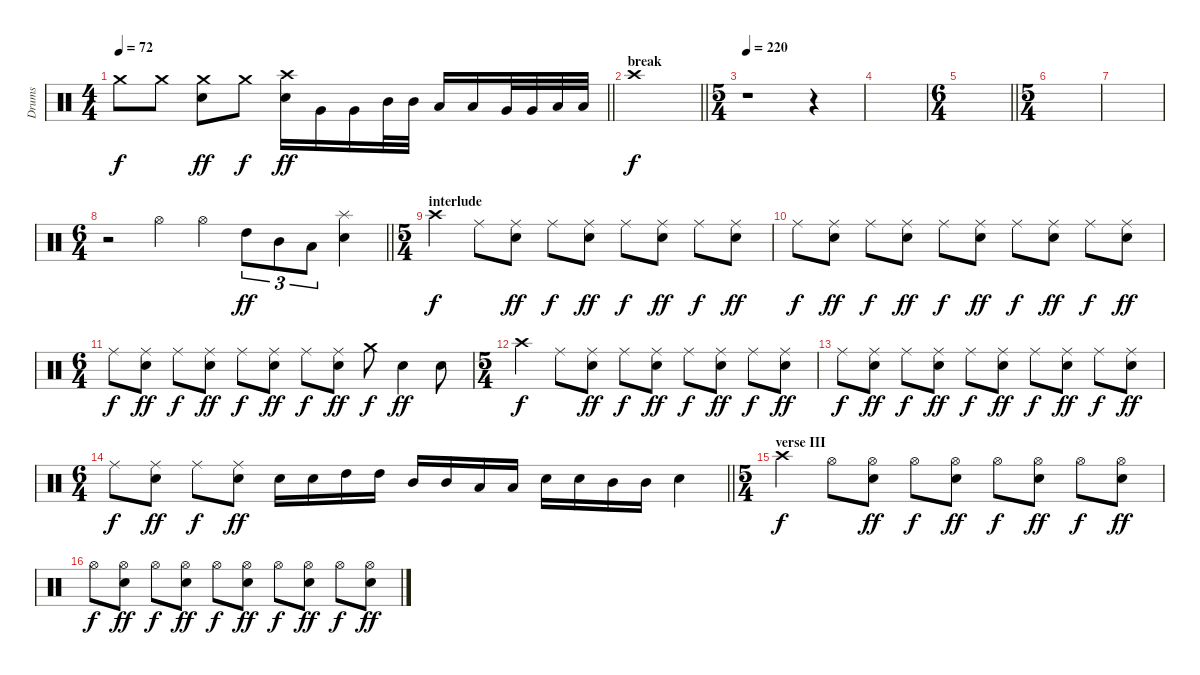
\track ("Drums" "Drums") {instrument percussion}
\staff {score}
\articulation defaults
\ts (4 4)
\tempo 72
\clef neutral
\barLineRight lightlight
\ks c "Crash medium (hit)".8{dy f} "Crash medium (hit)".8
("Crash medium (hit)" "Snare (hit) 2").8{dy ff} "Crash medium (hit)".8{dy f} ("Crash high (hit)" "Snare (hit) 2").16{dy ff} "Very Low Tom (hit)".16 "Very Low Tom (hit)".16 "Mid Tom (hit)".32 "Mid Tom (hit)".32 "Low Tom (hit)".16 "Low Tom (hit)".16 "Very Low Tom (hit)".32 "Very Low Tom (hit)".32 "Low Floor Tom (hit)".32 "Low Floor Tom (hit)".32 |
\section ("" "break")
\barLineRight lightlight "Crash high (hit)".1{dy f}
|
\ts (5 4)
\section ("" "")
\tempo 220
r.1 r.4 |
|
\ts (6 4)
\barLineRight lightlight
|
\ts (5 4)
|
|
\ts (6 4)
\barLineRight lightlight
r.2 "Hi-Hat (open)".4 "Hi-Hat (open)".4 "High Tom (hit)".8{tu (3 2) dy ff} "Mid Tom (hit)".8{tu (3 2)} "Low Tom (hit)".8{tu (3 2)} ("Splash (hit)" "Snare (hit) 2").4 |
\ts (5 4)
\section ("" "interlude")
"Crash high (hit)".4{dy f} "Ride (middle)".8 ("Ride (middle)" "Snare (hit) 2").8{dy ff} "Ride (middle)".8{dy f} ("Ride (middle)" "Snare (hit) 2").8{dy ff} "Ride (middle)".8{dy f} ("Ride (middle)" "Snare (hit) 2").8{dy ff} "Ride (middle)".8{dy f} ("Ride (middle)" "Snare (hit) 2").8{dy ff} |
"Ride (middle)".8{dy f} ("Ride (middle)" "Snare (hit) 2").8{dy ff} "Ride (middle)".8{dy f} ("Ride (middle)" "Snare (hit) 2").8{dy ff} "Ride (middle)".8{dy f} ("Ride (middle)" "Snare (hit) 2").8{dy ff} "Ride (middle)".8{dy f} ("Ride (middle)" "Snare (hit) 2").8{dy ff} "Ride (middle)".8{dy f} ("Ride (middle)" "Snare (hit) 2").8{dy ff} |
\ts (6 4)
"Ride (middle)".8{dy f} ("Ride (middle)" "Snare (hit) 2").8{dy ff} "Ride (middle)".8{dy f} ("Ride (middle)" "Snare (hit) 2").8{dy ff} "Ride (middle)".8{dy f} ("Ride (middle)" "Snare (hit) 2").8{dy ff} "Ride (middle)".8{dy f} ("Ride (middle)" "Snare (hit) 2").8{dy ff} "Crash medium (hit)".8{dy f} "Snare (hit) 2".4{dy ff} "Snare (hit) 2".8 |
\ts (5 4)
"Crash high (hit)".4{dy f} "Ride (middle)".8 ("Ride (middle)" "Snare (hit) 2").8{dy ff} "Ride (middle)".8{dy f} ("Ride (middle)" "Snare (hit) 2").8{dy ff} "Ride (middle)".8{dy f} ("Ride (middle)" "Snare (hit) 2").8{dy ff} "Ride (middle)".8{dy f} ("Ride (middle)" "Snare (hit) 2").8{dy ff} |
"Ride (middle)".8{dy f} ("Ride (middle)" "Snare (hit) 2").8{dy ff} "Ride (middle)".8{dy f} ("Ride (middle)" "Snare (hit) 2").8{dy ff} "Ride (middle)".8{dy f} ("Ride (middle)" "Snare (hit) 2").8{dy ff} "Ride (middle)".8{dy f} ("Ride (middle)" "Snare (hit) 2").8{dy ff} "Ride (middle)".8{dy f} ("Ride (middle)" "Snare (hit) 2").8{dy ff} |
\ts (6 4)
\barLineRight lightlight "Ride (middle)".8{dy f}
("Ride (middle)" "Snare (hit) 2").8{dy ff} "Ride (middle)".8{dy f} ("Ride (middle)" "Snare (hit) 2").8{dy ff} "Snare (hit) 2".16 "Snare (hit) 2".16 "High Tom (hit)".16 "High Tom (hit)".16 "Mid Tom (hit)".16 "Mid Tom (hit)".16 "Low Tom (hit)".16 "Low Tom (hit)".16 "Snare (hit) 2".16 "Snare (hit) 2".16 "Mid Tom (hit)".16 "Mid Tom (hit)".16 "Snare (hit) 2".4 |
\ts (5 4)
\section ("" "verse III")
"Crash high (hit)".4{dy f} "Hi-Hat (open)".8 ("Hi-Hat (open)" "Snare (hit) 2").8{dy ff} "Hi-Hat (open)".8{dy f} ("Hi-Hat (open)" "Snare (hit) 2").8{dy ff} "Hi-Hat (open)".8{dy f} ("Hi-Hat (open)" "Snare (hit) 2").8{dy ff} "Hi-Hat (open)".8{dy f} ("Hi-Hat (open)" "Snare (hit) 2").8{dy ff} |
"Hi-Hat (open)".8{dy f} ("Hi-Hat (open)" "Snare (hit) 2").8{dy ff} "Hi-Hat (open)".8{dy f} ("Hi-Hat (open)" "Snare (hit) 2").8{dy ff} "Hi-Hat (open)".8{dy f} ("Hi-Hat (open)" "Snare (hit) 2").8{dy ff} "Hi-Hat (open)".8{dy f} ("Hi-Hat (open)" "Snare (hit) 2").8{dy ff} "Hi-Hat (open)".8{dy f} ("Hi-Hat (open)" "Snare (hit) 2").8{dy ff}
